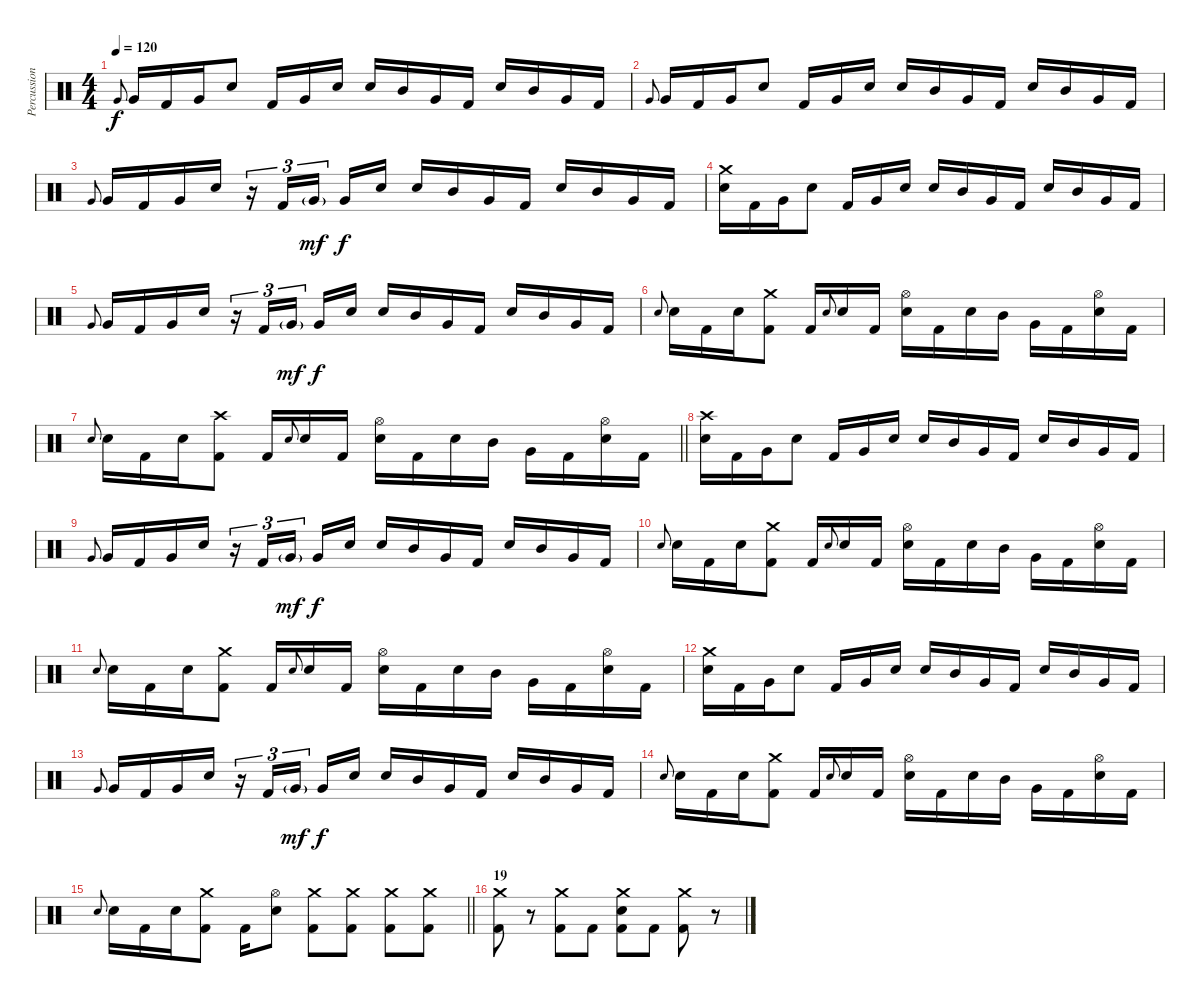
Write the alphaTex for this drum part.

\track ("Percussion" "Percussion") {instrument percussion}
\staff {score}
\articulation defaults
\ts (4 4)
\tempo 120
\clef neutral
\ks c "Very Low Tom (hit)".8{gr onbeat dy f} "Very Low Tom (hit)".16 "Kick (hit) 2".16 "Very Low Tom (hit)".16 "Snare (hit) 2".8 "Kick (hit) 2".16 "Very Low Tom (hit)".16 "Snare (hit) 2".16 "Snare (hit) 2".16 "Mid Tom (hit)".16 "Very Low Tom (hit)".16 "Kick (hit) 2".16 "Snare (hit) 2".16 "Mid Tom (hit)".16 "Very Low Tom (hit)".16 "Kick (hit) 2".16
|
"Very Low Tom (hit)".8{gr onbeat} "Very Low Tom (hit)".16 "Kick (hit) 2".16 "Very Low Tom (hit)".16 "Snare (hit) 2".8 "Kick (hit) 2".16 "Very Low Tom (hit)".16 "Snare (hit) 2".16 "Snare (hit) 2".16 "Mid Tom (hit)".16 "Very Low Tom (hit)".16 "Kick (hit) 2".16 "Snare (hit) 2".16 "Mid Tom (hit)".16 "Very Low Tom (hit)".16 "Kick (hit) 2".16 |
"Very Low Tom (hit)".8{gr onbeat} "Very Low Tom (hit)".16 "Kick (hit) 2".16 "Very Low Tom (hit)".16 "Snare (hit) 2".16 r.16{tu (3 2)} "Kick (hit) 2".16{tu (3 2)} "Very Low Tom (hit)"{g}.16{tu (3 2) dy mf beam splitsecondary} "Very Low Tom (hit)".16{dy f} "Snare (hit) 2".16 "Snare (hit) 2".16 "Mid Tom (hit)".16 "Very Low Tom (hit)".16 "Kick (hit) 2".16 "Snare (hit) 2".16 "Mid Tom (hit)".16 "Very Low Tom (hit)".16 "Kick (hit) 2".16 |
("Crash medium (hit)" "Snare (hit) 2").16 "Kick (hit) 2".16 "Very Low Tom (hit)".16 "Snare (hit) 2".8 "Kick (hit) 2".16 "Very Low Tom (hit)".16 "Snare (hit) 2".16 "Snare (hit) 2".16 "Mid Tom (hit)".16 "Very Low Tom (hit)".16 "Kick (hit) 2".16 "Snare (hit) 2".16 "Mid Tom (hit)".16 "Very Low Tom (hit)".16 "Kick (hit) 2".16 |
"Very Low Tom (hit)".8{gr onbeat} "Very Low Tom (hit)".16 "Kick (hit) 2".16 "Very Low Tom (hit)".16 "Snare (hit) 2".16 r.16{tu (3 2)} "Kick (hit) 2".16{tu (3 2)} "Very Low Tom (hit)"{g}.16{tu (3 2) dy mf beam splitsecondary} "Very Low Tom (hit)".16{dy f} "Snare (hit) 2".16 "Snare (hit) 2".16 "Mid Tom (hit)".16 "Very Low Tom (hit)".16 "Kick (hit) 2".16 "Snare (hit) 2".16 "Mid Tom (hit)".16 "Very Low Tom (hit)".16 "Kick (hit) 2".16 |
"Snare (hit) 2".8{gr onbeat} "Snare (hit) 2".16 "Kick (hit) 2".16 "Snare (hit) 2".16 ("Crash medium (hit)" "Kick (hit) 2").8 "Kick (hit) 2".16 "Snare (hit) 2".8{gr onbeat} "Snare (hit) 2".16 "Kick (hit) 2".16 ("Hi-Hat (open)" "Snare (hit) 2").16 "Kick (hit) 2".16 "Snare (hit) 2".16 "Mid Tom (hit)".16 "Very Low Tom (hit)".16 "Kick (hit) 2".16 ("Hi-Hat (open)" "Snare (hit) 2").16 "Kick (hit) 2".16 |
\barLineRight lightlight "Snare (hit) 2".8{gr onbeat} "Snare (hit) 2".16 "Kick (hit) 2".16 "Snare (hit) 2".16
("Crash high (hit)" "Kick (hit) 2").8 "Kick (hit) 2".16 "Snare (hit) 2".8{gr onbeat} "Snare (hit) 2".16 "Kick (hit) 2".16 ("Hi-Hat (open)" "Snare (hit) 2").16 "Kick (hit) 2".16 "Snare (hit) 2".16 "Mid Tom (hit)".16 "Very Low Tom (hit)".16 "Kick (hit) 2".16 ("Hi-Hat (open)" "Snare (hit) 2").16 "Kick (hit) 2".16 |
\section ("" "")
("Crash high (hit)" "Snare (hit) 2").16 "Kick (hit) 2".16 "Very Low Tom (hit)".16 "Snare (hit) 2".8 "Kick (hit) 2".16 "Very Low Tom (hit)".16 "Snare (hit) 2".16 "Snare (hit) 2".16 "Mid Tom (hit)".16 "Very Low Tom (hit)".16 "Kick (hit) 2".16 "Snare (hit) 2".16 "Mid Tom (hit)".16 "Very Low Tom (hit)".16 "Kick (hit) 2".16 |
"Very Low Tom (hit)".8{gr onbeat} "Very Low Tom (hit)".16 "Kick (hit) 2".16 "Very Low Tom (hit)".16 "Snare (hit) 2".16 r.16{tu (3 2)} "Kick (hit) 2".16{tu (3 2)} "Very Low Tom (hit)"{g}.16{tu (3 2) dy mf beam splitsecondary} "Very Low Tom (hit)".16{dy f} "Snare (hit) 2".16 "Snare (hit) 2".16 "Mid Tom (hit)".16 "Very Low Tom (hit)".16 "Kick (hit) 2".16 "Snare (hit) 2".16 "Mid Tom (hit)".16 "Very Low Tom (hit)".16 "Kick (hit) 2".16 |
"Snare (hit) 2".8{gr onbeat} "Snare (hit) 2".16 "Kick (hit) 2".16 "Snare (hit) 2".16 ("Crash medium (hit)" "Kick (hit) 2").8 "Kick (hit) 2".16 "Snare (hit) 2".8{gr onbeat} "Snare (hit) 2".16 "Kick (hit) 2".16 ("Hi-Hat (open)" "Snare (hit) 2").16 "Kick (hit) 2".16 "Snare (hit) 2".16 "Mid Tom (hit)".16 "Very Low Tom (hit)".16 "Kick (hit) 2".16 ("Hi-Hat (open)" "Snare (hit) 2").16 "Kick (hit) 2".16 |
"Snare (hit) 2".8{gr onbeat} "Snare (hit) 2".16 "Kick (hit) 2".16 "Snare (hit) 2".16 ("Crash medium (hit)" "Kick (hit) 2").8 "Kick (hit) 2".16 "Snare (hit) 2".8{gr onbeat} "Snare (hit) 2".16 "Kick (hit) 2".16 ("Hi-Hat (open)" "Snare (hit) 2").16 "Kick (hit) 2".16 "Snare (hit) 2".16 "Mid Tom (hit)".16 "Very Low Tom (hit)".16 "Kick (hit) 2".16 ("Hi-Hat (open)" "Snare (hit) 2").16 "Kick (hit) 2".16 |
("Crash medium (hit)" "Snare (hit) 2").16 "Kick (hit) 2".16 "Very Low Tom (hit)".16 "Snare (hit) 2".8 "Kick (hit) 2".16 "Very Low Tom (hit)".16 "Snare (hit) 2".16 "Snare (hit) 2".16 "Mid Tom (hit)".16 "Very Low Tom (hit)".16 "Kick (hit) 2".16 "Snare (hit) 2".16 "Mid Tom (hit)".16 "Very Low Tom (hit)".16 "Kick (hit) 2".16 |
"Very Low Tom (hit)".8{gr onbeat} "Very Low Tom (hit)".16 "Kick (hit) 2".16 "Very Low Tom (hit)".16 "Snare (hit) 2".16 r.16{tu (3 2)} "Kick (hit) 2".16{tu (3 2)} "Very Low Tom (hit)"{g}.16{tu (3 2) dy mf beam splitsecondary} "Very Low Tom (hit)".16{dy f} "Snare (hit) 2".16 "Snare (hit) 2".16 "Mid Tom (hit)".16 "Very Low Tom (hit)".16 "Kick (hit) 2".16 "Snare (hit) 2".16 "Mid Tom (hit)".16 "Very Low Tom (hit)".16 "Kick (hit) 2".16 |
"Snare (hit) 2".8{gr onbeat} "Snare (hit) 2".16 "Kick (hit) 2".16 "Snare (hit) 2".16 ("Crash medium (hit)" "Kick (hit) 2").8 "Kick (hit) 2".16 "Snare (hit) 2".8{gr onbeat} "Snare (hit) 2".16 "Kick (hit) 2".16 ("Hi-Hat (open)" "Snare (hit) 2").16 "Kick (hit) 2".16 "Snare (hit) 2".16 "Mid Tom (hit)".16 "Very Low Tom (hit)".16 "Kick (hit) 2".16 ("Hi-Hat (open)" "Snare (hit) 2").16 "Kick (hit) 2".16 |
\barLineRight lightlight "Snare (hit) 2".8{gr onbeat} "Snare (hit) 2".16 "Kick (hit) 2".16 "Snare (hit) 2".16
("Crash medium (hit)" "Kick (hit) 2").8 "Kick (hit) 2".16 ("Hi-Hat (open)" "Snare (hit) 2").8 ("Crash medium (hit)" "Kick (hit) 2").8 ("Crash medium (hit)" "Kick (hit) 2").8 ("Crash medium (hit)" "Kick (hit) 2").8 ("Crash medium (hit)" "Kick (hit) 2").8 |
\section ("" "19")
("Crash medium (hit)" "Kick (hit) 2").8 r.8 ("Crash medium (hit)" "Kick (hit) 2").8 "Kick (hit) 2".8 ("Crash medium (hit)" "Snare (hit) 2" "Kick (hit) 2").8 "Kick (hit) 2".8 ("Crash medium (hit)" "Kick (hit) 2").8 r.8
